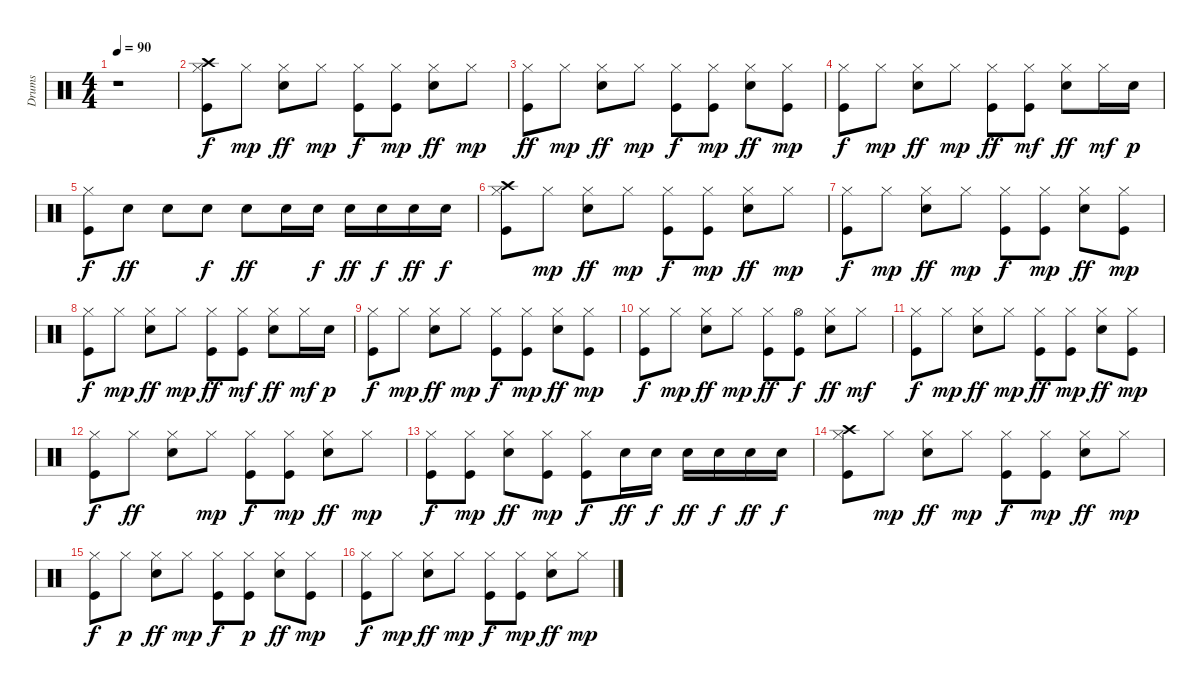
\track ("Drums   " "Drums   ") {instrument percussion}
\staff {score}
\articulation defaults
\ts (4 4)
\tempo 90
\clef neutral
\ks c
r.1{dy f} |
("Kick (hit)" "Hi-Hat (closed)" "Crash high (hit)").8 "Hi-Hat (closed)".8{dy mp} ("Snare (hit) 2" "Hi-Hat (closed)").8{dy ff} "Hi-Hat (closed)".8{dy mp} ("Kick (hit)" "Hi-Hat (closed)").8{dy f} ("Kick (hit)" "Hi-Hat (closed)").8{dy mp} ("Snare (hit) 2" "Hi-Hat (closed)").8{dy ff} "Hi-Hat (closed)".8{dy mp} |
("Kick (hit)" "Hi-Hat (closed)").8{dy ff} "Hi-Hat (closed)".8{dy mp} ("Snare (hit) 2" "Hi-Hat (closed)").8{dy ff} "Hi-Hat (closed)".8{dy mp} ("Kick (hit)" "Hi-Hat (closed)").8{dy f} ("Kick (hit)" "Hi-Hat (closed)").8{dy mp} ("Snare (hit) 2" "Hi-Hat (closed)").8{dy ff} ("Kick (hit)" "Hi-Hat (closed)").8{dy mp} |
("Kick (hit)" "Hi-Hat (closed)").8{dy f} "Hi-Hat (closed)".8{dy mp} ("Snare (hit) 2" "Hi-Hat (closed)").8{dy ff} "Hi-Hat (closed)".8{dy mp} ("Kick (hit)" "Hi-Hat (closed)").8{dy ff} ("Kick (hit)" "Hi-Hat (closed)").8{dy mf} ("Snare (hit) 2" "Hi-Hat (closed)").8{dy ff} "Hi-Hat (closed)".16{dy mf} "Snare (hit) 2".16{dy p} |
("Kick (hit)" "Hi-Hat (closed)").8{dy f} "Snare (hit) 2".8{dy ff} "Snare (hit) 2".8 "Snare (hit) 2".8{dy f} "Snare (hit) 2".8{dy ff} "Snare (hit) 2".16 "Snare (hit) 2".16{dy f} "Snare (hit) 2".16{dy ff} "Snare (hit) 2".16{dy f} "Snare (hit) 2".16{dy ff} "Snare (hit) 2".16{dy f} |
("Kick (hit)" "Hi-Hat (closed)" "Crash high (hit)").8 "Hi-Hat (closed)".8{dy mp} ("Snare (hit) 2" "Hi-Hat (closed)").8{dy ff} "Hi-Hat (closed)".8{dy mp} ("Kick (hit)" "Hi-Hat (closed)").8{dy f} ("Kick (hit)" "Hi-Hat (closed)").8{dy mp} ("Snare (hit) 2" "Hi-Hat (closed)").8{dy ff} "Hi-Hat (closed)".8{dy mp} |
("Kick (hit)" "Hi-Hat (closed)").8{dy f} "Hi-Hat (closed)".8{dy mp} ("Snare (hit) 2" "Hi-Hat (closed)").8{dy ff} "Hi-Hat (closed)".8{dy mp} ("Kick (hit)" "Hi-Hat (closed)").8{dy f} ("Kick (hit)" "Hi-Hat (closed)").8{dy mp} ("Snare (hit) 2" "Hi-Hat (closed)").8{dy ff} ("Kick (hit)" "Hi-Hat (closed)").8{dy mp} |
("Kick (hit)" "Hi-Hat (closed)").8{dy f} "Hi-Hat (closed)".8{dy mp} ("Snare (hit) 2" "Hi-Hat (closed)").8{dy ff} "Hi-Hat (closed)".8{dy mp} ("Kick (hit)" "Hi-Hat (closed)").8{dy ff} ("Kick (hit)" "Hi-Hat (closed)").8{dy mf} ("Snare (hit) 2" "Hi-Hat (closed)").8{dy ff} "Hi-Hat (closed)".16{dy mf} "Snare (hit) 2".16{dy p} |
("Kick (hit)" "Hi-Hat (closed)").8{dy f} "Hi-Hat (closed)".8{dy mp} ("Snare (hit) 2" "Hi-Hat (closed)").8{dy ff} "Hi-Hat (closed)".8{dy mp} ("Kick (hit)" "Hi-Hat (closed)").8{dy f} ("Kick (hit)" "Hi-Hat (closed)").8{dy mp} ("Snare (hit) 2" "Hi-Hat (closed)").8{dy ff} ("Kick (hit)" "Hi-Hat (closed)").8{dy mp} |
("Kick (hit)" "Hi-Hat (closed)").8{dy f} "Hi-Hat (closed)".8{dy mp} ("Snare (hit) 2" "Hi-Hat (closed)").8{dy ff} "Hi-Hat (closed)".8{dy mp} ("Kick (hit)" "Hi-Hat (closed)").8{dy ff} ("Kick (hit)" "Hi-Hat (open)").8{dy f} ("Snare (hit) 2" "Hi-Hat (closed)").8{dy ff} "Hi-Hat (closed)".8{dy mf} |
("Kick (hit)" "Hi-Hat (closed)").8{dy f} "Hi-Hat (closed)".8{dy mp} ("Snare (hit) 2" "Hi-Hat (closed)").8{dy ff} "Hi-Hat (closed)".8{dy mp} ("Kick (hit)" "Hi-Hat (closed)").8{dy ff} ("Kick (hit)" "Hi-Hat (closed)").8{dy mp} ("Snare (hit) 2" "Hi-Hat (closed)").8{dy ff} ("Kick (hit)" "Hi-Hat (closed)").8{dy mp} |
("Kick (hit)" "Hi-Hat (closed)").8{dy f} "Hi-Hat (closed)".8{dy ff} ("Snare (hit) 2" "Hi-Hat (closed)").8 "Hi-Hat (closed)".8{dy mp} ("Kick (hit)" "Hi-Hat (closed)").8{dy f} ("Kick (hit)" "Hi-Hat (closed)").8{dy mp} ("Snare (hit) 2" "Hi-Hat (closed)").8{dy ff} "Hi-Hat (closed)".8{dy mp} |
("Kick (hit)" "Hi-Hat (closed)").8{dy f} ("Kick (hit)" "Hi-Hat (closed)").8{dy mp} ("Snare (hit) 2" "Hi-Hat (closed)").8{dy ff} ("Kick (hit)" "Hi-Hat (closed)").8{dy mp} ("Kick (hit)" "Hi-Hat (closed)").8{dy f} "Snare (hit) 2".16{dy ff} "Snare (hit) 2".16{dy f} "Snare (hit) 2".16{dy ff} "Snare (hit) 2".16{dy f} "Snare (hit) 2".16{dy ff} "Snare (hit) 2".16{dy f} |
("Kick (hit)" "Hi-Hat (closed)" "Crash high (hit)").8 "Hi-Hat (closed)".8{dy mp} ("Snare (hit) 2" "Hi-Hat (closed)").8{dy ff} "Hi-Hat (closed)".8{dy mp} ("Kick (hit)" "Hi-Hat (closed)").8{dy f} ("Kick (hit)" "Hi-Hat (closed)").8{dy mp} ("Snare (hit) 2" "Hi-Hat (closed)").8{dy ff} "Hi-Hat (closed)".8{dy mp} |
("Kick (hit)" "Hi-Hat (closed)").8{dy f} "Hi-Hat (closed)".8{dy p} ("Snare (hit) 2" "Hi-Hat (closed)").8{dy ff} "Hi-Hat (closed)".8{dy mp} ("Kick (hit)" "Hi-Hat (closed)").8{dy f} ("Kick (hit)" "Hi-Hat (closed)").8{dy p} ("Snare (hit) 2" "Hi-Hat (closed)").8{dy ff} ("Kick (hit)" "Hi-Hat (closed)").8{dy mp} |
("Kick (hit)" "Hi-Hat (closed)").8{dy f} "Hi-Hat (closed)".8{dy mp} ("Snare (hit) 2" "Hi-Hat (closed)").8{dy ff} "Hi-Hat (closed)".8{dy mp} ("Kick (hit)" "Hi-Hat (closed)").8{dy f} ("Kick (hit)" "Hi-Hat (closed)").8{dy mp} ("Snare (hit) 2" "Hi-Hat (closed)").8{dy ff} "Hi-Hat (closed)".8{dy mp}
